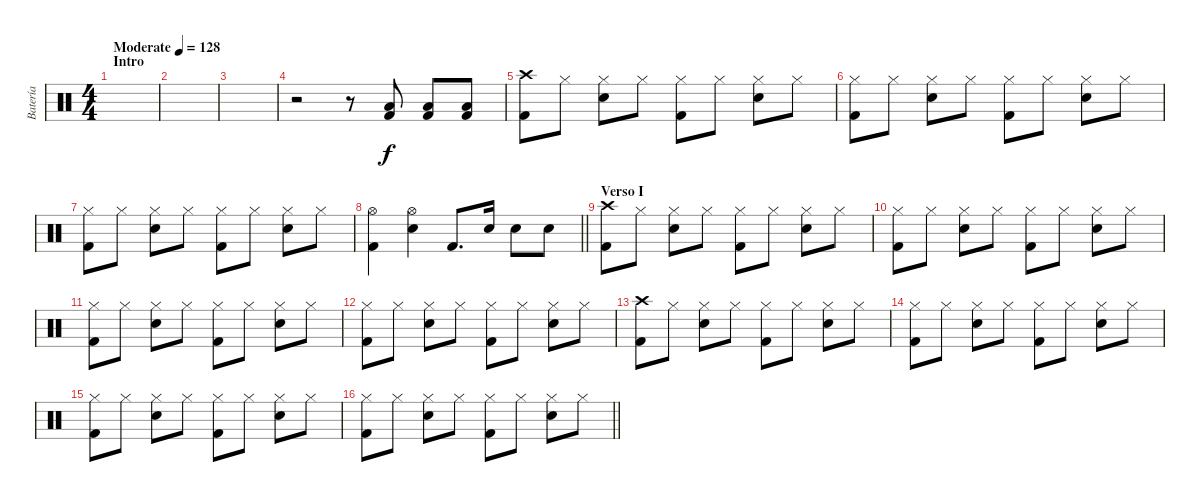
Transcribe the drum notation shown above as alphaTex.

\track ("Batería" "Batería") {instrument percussion}
\staff {score}
\articulation defaults
\ts (4 4)
\section ("" "Intro")
\tempo (128 "Moderate")
\clef neutral
\ks c
|
|
|
r.2 r.8 ("Kick (hit) 2" "Low Tom (hit)").8 ("Kick (hit) 2" "Low Tom (hit)").8 ("Kick (hit) 2" "Low Tom (hit)").8 |
("Crash high (hit)" "Kick (hit) 2").8 "Hi-Hat (closed)".8 ("Hi-Hat (closed)" "Electric Snare (hit)").8 "Hi-Hat (closed)".8 ("Hi-Hat (closed)" "Kick (hit) 2").8 "Hi-Hat (closed)".8 ("Hi-Hat (closed)" "Electric Snare (hit)").8 "Hi-Hat (closed)".8 |
("Hi-Hat (closed)" "Kick (hit) 2").8 "Hi-Hat (closed)".8 ("Hi-Hat (closed)" "Electric Snare (hit)").8 "Hi-Hat (closed)".8 ("Hi-Hat (closed)" "Kick (hit) 2").8 "Hi-Hat (closed)".8 ("Hi-Hat (closed)" "Electric Snare (hit)").8 "Hi-Hat (closed)".8 |
("Hi-Hat (closed)" "Kick (hit) 2").8 "Hi-Hat (closed)".8 ("Hi-Hat (closed)" "Electric Snare (hit)").8 "Hi-Hat (closed)".8 ("Hi-Hat (closed)" "Kick (hit) 2").8 "Hi-Hat (closed)".8 ("Hi-Hat (closed)" "Electric Snare (hit)").8 "Hi-Hat (closed)".8 |
\barLineRight lightlight
("Hi-Hat (open)" "Kick (hit) 2").4 ("Hi-Hat (open)" "Electric Snare (hit)").4 "Kick (hit) 2".8{d} "Electric Snare (hit)".16 "Electric Snare (hit)".8 "Electric Snare (hit)".8 |
\section ("" "Verso I")
("Crash high (hit)" "Kick (hit) 2").8 "Hi-Hat (closed)".8 ("Hi-Hat (closed)" "Electric Snare (hit)").8 "Hi-Hat (closed)".8 ("Hi-Hat (closed)" "Kick (hit) 2").8 "Hi-Hat (closed)".8 ("Hi-Hat (closed)" "Electric Snare (hit)").8 "Hi-Hat (closed)".8 |
("Hi-Hat (closed)" "Kick (hit) 2").8 "Hi-Hat (closed)".8 ("Hi-Hat (closed)" "Electric Snare (hit)").8 "Hi-Hat (closed)".8 ("Hi-Hat (closed)" "Kick (hit) 2").8 "Hi-Hat (closed)".8 ("Hi-Hat (closed)" "Electric Snare (hit)").8 "Hi-Hat (closed)".8 |
("Hi-Hat (closed)" "Kick (hit) 2").8 "Hi-Hat (closed)".8 ("Hi-Hat (closed)" "Electric Snare (hit)").8 "Hi-Hat (closed)".8 ("Hi-Hat (closed)" "Kick (hit) 2").8 "Hi-Hat (closed)".8 ("Hi-Hat (closed)" "Electric Snare (hit)").8 "Hi-Hat (closed)".8 |
("Hi-Hat (closed)" "Kick (hit) 2").8 "Hi-Hat (closed)".8 ("Hi-Hat (closed)" "Electric Snare (hit)").8 "Hi-Hat (closed)".8 ("Hi-Hat (closed)" "Kick (hit) 2").8 "Hi-Hat (closed)".8 ("Hi-Hat (closed)" "Electric Snare (hit)").8 "Hi-Hat (closed)".8 |
("Crash high (hit)" "Kick (hit) 2").8 "Hi-Hat (closed)".8 ("Hi-Hat (closed)" "Electric Snare (hit)").8 "Hi-Hat (closed)".8 ("Hi-Hat (closed)" "Kick (hit) 2").8 "Hi-Hat (closed)".8 ("Hi-Hat (closed)" "Electric Snare (hit)").8 "Hi-Hat (closed)".8 |
("Hi-Hat (closed)" "Kick (hit) 2").8 "Hi-Hat (closed)".8 ("Hi-Hat (closed)" "Electric Snare (hit)").8 "Hi-Hat (closed)".8 ("Hi-Hat (closed)" "Kick (hit) 2").8 "Hi-Hat (closed)".8 ("Hi-Hat (closed)" "Electric Snare (hit)").8 "Hi-Hat (closed)".8 |
("Hi-Hat (closed)" "Kick (hit) 2").8 "Hi-Hat (closed)".8 ("Hi-Hat (closed)" "Electric Snare (hit)").8 "Hi-Hat (closed)".8 ("Hi-Hat (closed)" "Kick (hit) 2").8 "Hi-Hat (closed)".8 ("Hi-Hat (closed)" "Electric Snare (hit)").8 "Hi-Hat (closed)".8 |
\barLineRight lightlight
("Hi-Hat (closed)" "Kick (hit) 2").8 "Hi-Hat (closed)".8 ("Hi-Hat (closed)" "Electric Snare (hit)").8 "Hi-Hat (closed)".8 ("Hi-Hat (closed)" "Kick (hit) 2").8 "Hi-Hat (closed)".8 ("Hi-Hat (closed)" "Electric Snare (hit)").8 "Hi-Hat (closed)".8
